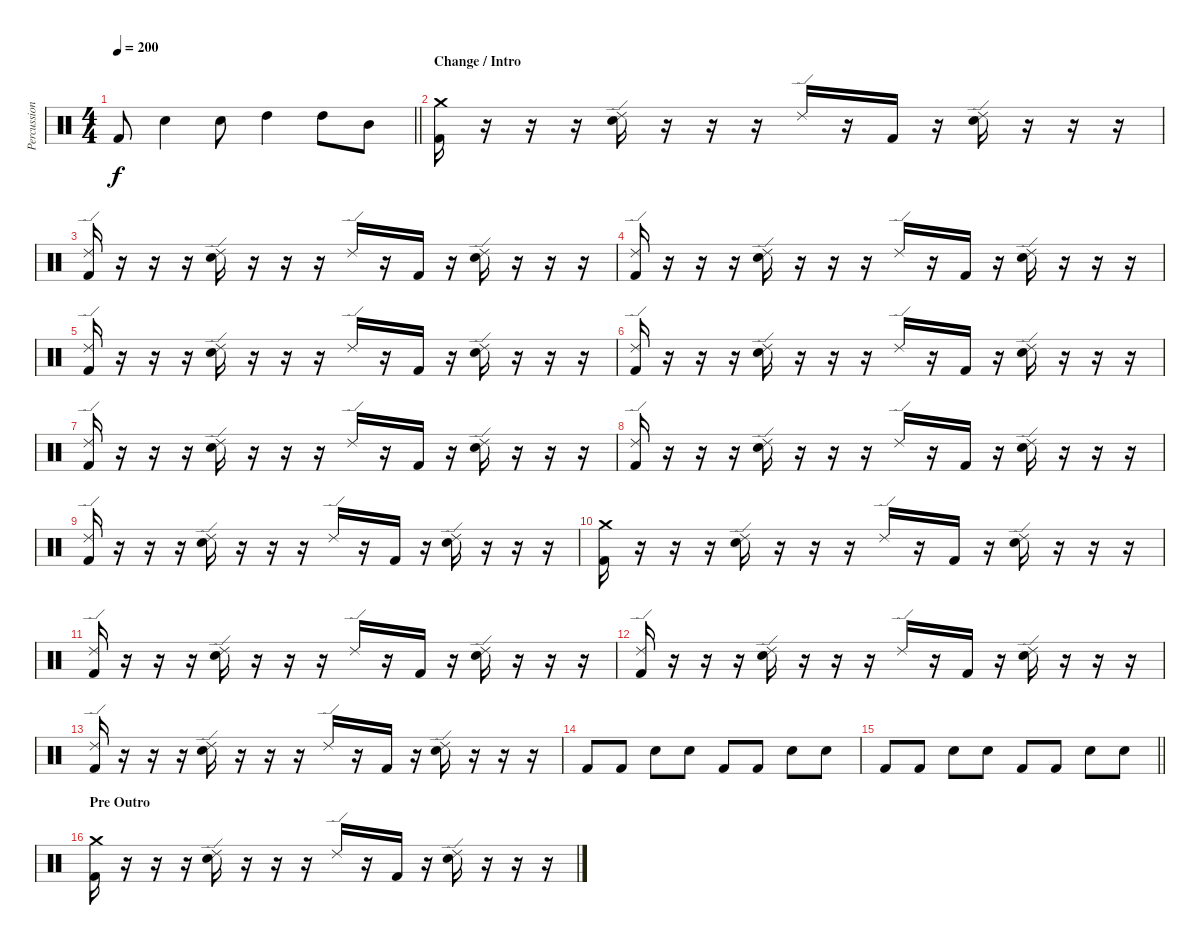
\track ("Percussion" "Percussion") {instrument percussion}
\staff {score}
\articulation defaults
\ts (4 4)
\tempo 200
\clef neutral
\barLineRight lightlight
\ks c "Kick (hit) 2".8{dy f} "Electric Snare (hit)".4 "Electric Snare (hit)".8 "High Tom (hit)".4 "High Tom (hit)".8 "Mid Tom (hit)".8
|
\section ("" "Change / Intro")
("Crash medium (hit)" "Kick (hit) 2").16 r.16 r.16 r.16 ("Ride (edge) 2" "Electric Snare (hit)").16 r.16 r.16 r.16 "Ride (edge) 2".16 r.16 "Kick (hit) 2".16 r.16 ("Ride (edge) 2" "Electric Snare (hit)").16 r.16 r.16 r.16 |
("Ride (edge) 2" "Kick (hit) 2").16 r.16 r.16 r.16 ("Ride (edge) 2" "Electric Snare (hit)").16 r.16 r.16 r.16 "Ride (edge) 2".16 r.16 "Kick (hit) 2".16 r.16 ("Ride (edge) 2" "Electric Snare (hit)").16 r.16 r.16 r.16 |
("Ride (edge) 2" "Kick (hit) 2").16 r.16 r.16 r.16 ("Ride (edge) 2" "Electric Snare (hit)").16 r.16 r.16 r.16 "Ride (edge) 2".16 r.16 "Kick (hit) 2".16 r.16 ("Ride (edge) 2" "Electric Snare (hit)").16 r.16 r.16 r.16 |
("Ride (edge) 2" "Kick (hit) 2").16 r.16 r.16 r.16 ("Ride (edge) 2" "Electric Snare (hit)").16 r.16 r.16 r.16 "Ride (edge) 2".16 r.16 "Kick (hit) 2".16 r.16 ("Ride (edge) 2" "Electric Snare (hit)").16 r.16 r.16 r.16 |
("Ride (edge) 2" "Kick (hit) 2").16 r.16 r.16 r.16 ("Ride (edge) 2" "Electric Snare (hit)").16 r.16 r.16 r.16 "Ride (edge) 2".16 r.16 "Kick (hit) 2".16 r.16 ("Ride (edge) 2" "Electric Snare (hit)").16 r.16 r.16 r.16 |
("Ride (edge) 2" "Kick (hit) 2").16 r.16 r.16 r.16 ("Ride (edge) 2" "Electric Snare (hit)").16 r.16 r.16 r.16 "Ride (edge) 2".16 r.16 "Kick (hit) 2".16 r.16 ("Ride (edge) 2" "Electric Snare (hit)").16 r.16 r.16 r.16 |
("Ride (edge) 2" "Kick (hit) 2").16 r.16 r.16 r.16 ("Ride (edge) 2" "Electric Snare (hit)").16 r.16 r.16 r.16 "Ride (edge) 2".16 r.16 "Kick (hit) 2".16 r.16 ("Ride (edge) 2" "Electric Snare (hit)").16 r.16 r.16 r.16 |
("Ride (edge) 2" "Kick (hit) 2").16 r.16 r.16 r.16 ("Ride (edge) 2" "Electric Snare (hit)").16 r.16 r.16 r.16 "Ride (edge) 2".16 r.16 "Kick (hit) 2".16 r.16 ("Ride (edge) 2" "Electric Snare (hit)").16 r.16 r.16 r.16 |
("Crash medium (hit)" "Kick (hit) 2").16 r.16 r.16 r.16 ("Ride (edge) 2" "Electric Snare (hit)").16 r.16 r.16 r.16 "Ride (edge) 2".16 r.16 "Kick (hit) 2".16 r.16 ("Ride (edge) 2" "Electric Snare (hit)").16 r.16 r.16 r.16 |
("Ride (edge) 2" "Kick (hit) 2").16 r.16 r.16 r.16 ("Ride (edge) 2" "Electric Snare (hit)").16 r.16 r.16 r.16 "Ride (edge) 2".16 r.16 "Kick (hit) 2".16 r.16 ("Ride (edge) 2" "Electric Snare (hit)").16 r.16 r.16 r.16 |
("Ride (edge) 2" "Kick (hit) 2").16 r.16 r.16 r.16 ("Ride (edge) 2" "Electric Snare (hit)").16 r.16 r.16 r.16 "Ride (edge) 2".16 r.16 "Kick (hit) 2".16 r.16 ("Ride (edge) 2" "Electric Snare (hit)").16 r.16 r.16 r.16 |
("Ride (edge) 2" "Kick (hit) 2").16 r.16 r.16 r.16 ("Ride (edge) 2" "Electric Snare (hit)").16 r.16 r.16 r.16 "Ride (edge) 2".16 r.16 "Kick (hit) 2".16 r.16 ("Ride (edge) 2" "Electric Snare (hit)").16 r.16 r.16 r.16 |
"Kick (hit) 2".8 "Kick (hit) 2".8 "Electric Snare (hit)".8 "Electric Snare (hit)".8 "Kick (hit) 2".8 "Kick (hit) 2".8 "Electric Snare (hit)".8 "Electric Snare (hit)".8 |
\barLineRight lightlight "Kick (hit) 2".8 "Kick (hit) 2".8 "Electric Snare (hit)".8 "Electric Snare (hit)".8 "Kick (hit) 2".8 "Kick (hit) 2".8 "Electric Snare (hit)".8 "Electric Snare (hit)".8
|
\section ("" "Pre Outro")
("Crash medium (hit)" "Kick (hit) 2").16 r.16 r.16 r.16 ("Ride (edge) 2" "Electric Snare (hit)").16 r.16 r.16 r.16 "Ride (edge) 2".16 r.16 "Kick (hit) 2".16 r.16 ("Ride (edge) 2" "Electric Snare (hit)").16 r.16 r.16 r.16
